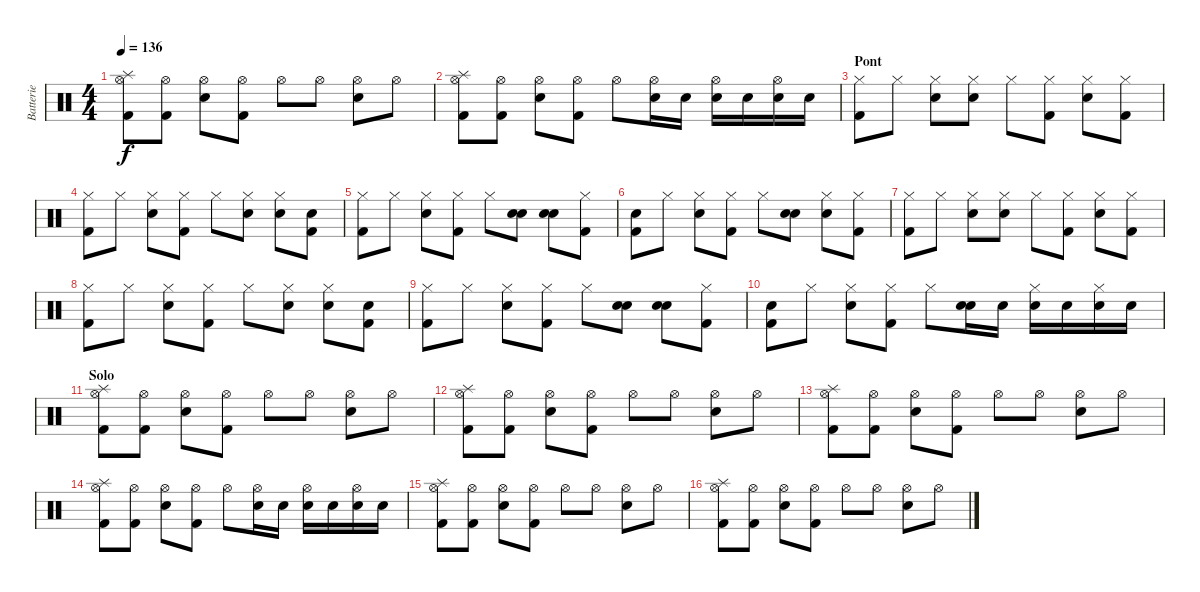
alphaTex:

\track ("Batterie" "Batterie") {instrument percussion}
\staff {score}
\articulation defaults
\ts (4 4)
\tempo 136
\clef neutral
\ks c
("Splash (hit)" "Hi-Hat (open)" "Kick (hit) 2").8{dy f} ("Hi-Hat (open)" "Kick (hit) 2").8 ("Hi-Hat (open)" "Snare (hit) 2").8 ("Hi-Hat (open)" "Kick (hit) 2").8 "Hi-Hat (open)".8 "Hi-Hat (open)".8 ("Hi-Hat (open)" "Snare (hit) 2").8 "Hi-Hat (open)".8 |
("Splash (hit)" "Hi-Hat (open)" "Kick (hit) 2").8 ("Hi-Hat (open)" "Kick (hit) 2").8 ("Hi-Hat (open)" "Snare (hit) 2").8 ("Hi-Hat (open)" "Kick (hit) 2").8 "Hi-Hat (open)".8 ("Hi-Hat (open)" "Snare (hit) 2").16 "Snare (hit) 2".16 ("Hi-Hat (open)" "Snare (hit) 2").16 "Snare (hit) 2".16 ("Hi-Hat (open)" "Snare (hit) 2").16 "Snare (hit) 2".16 |
\section ("" "Pont")
("Hi-Hat (closed)" "Kick (hit) 2").8 "Hi-Hat (closed)".8 ("Hi-Hat (closed)" "Snare (hit) 2").8 ("Hi-Hat (closed)" "Snare (hit) 2").8 "Hi-Hat (closed)".8 ("Hi-Hat (closed)" "Kick (hit) 2").8 ("Hi-Hat (closed)" "Snare (hit) 2").8 ("Hi-Hat (closed)" "Kick (hit) 2").8 |
("Hi-Hat (closed)" "Kick (hit) 2").8 "Hi-Hat (closed)".8 ("Hi-Hat (closed)" "Snare (hit) 2").8 ("Hi-Hat (closed)" "Kick (hit) 2").8 "Hi-Hat (closed)".8 ("Hi-Hat (closed)" "Snare (hit) 2").8 ("Hi-Hat (closed)" "Snare (hit) 2").8 ("Snare (hit)" "Kick (hit) 2").8 |
("Hi-Hat (closed)" "Kick (hit) 2").8 "Hi-Hat (closed)".8 ("Hi-Hat (closed)" "Snare (hit) 2").8 ("Hi-Hat (closed)" "Kick (hit) 2").8 "Hi-Hat (closed)".8 ("Snare (hit)" "Snare (hit) 2").8 ("Snare (hit)" "Snare (hit) 2").8 ("Hi-Hat (closed)" "Kick (hit) 2").8 |
("Snare (hit)" "Kick (hit) 2").8 "Hi-Hat (closed)".8 ("Hi-Hat (closed)" "Snare (hit) 2").8 ("Hi-Hat (closed)" "Kick (hit) 2").8 "Hi-Hat (closed)".8 ("Snare (hit)" "Snare (hit) 2").8 ("Hi-Hat (closed)" "Snare (hit) 2").8 ("Hi-Hat (closed)" "Kick (hit) 2").8 |
("Hi-Hat (closed)" "Kick (hit) 2").8 "Hi-Hat (closed)".8 ("Hi-Hat (closed)" "Snare (hit) 2").8 ("Hi-Hat (closed)" "Snare (hit) 2").8 "Hi-Hat (closed)".8 ("Hi-Hat (closed)" "Kick (hit) 2").8 ("Hi-Hat (closed)" "Snare (hit) 2").8 ("Hi-Hat (closed)" "Kick (hit) 2").8 |
("Hi-Hat (closed)" "Kick (hit) 2").8 "Hi-Hat (closed)".8 ("Hi-Hat (closed)" "Snare (hit) 2").8 ("Hi-Hat (closed)" "Kick (hit) 2").8 "Hi-Hat (closed)".8 ("Hi-Hat (closed)" "Snare (hit) 2").8 ("Hi-Hat (closed)" "Snare (hit) 2").8 ("Snare (hit)" "Kick (hit) 2").8 |
("Hi-Hat (closed)" "Kick (hit) 2").8 "Hi-Hat (closed)".8 ("Hi-Hat (closed)" "Snare (hit) 2").8 ("Hi-Hat (closed)" "Kick (hit) 2").8 "Hi-Hat (closed)".8 ("Snare (hit)" "Snare (hit) 2").8 ("Snare (hit)" "Snare (hit) 2").8 ("Hi-Hat (closed)" "Kick (hit) 2").8 |
("Snare (hit)" "Kick (hit) 2").8 "Hi-Hat (closed)".8 ("Hi-Hat (closed)" "Snare (hit) 2").8 ("Hi-Hat (closed)" "Kick (hit) 2").8 "Hi-Hat (closed)".8 ("Snare (hit)" "Snare (hit) 2").16 "Snare (hit) 2".16 ("Hi-Hat (closed)" "Snare (hit) 2").16 "Snare (hit) 2".16 ("Hi-Hat (closed)" "Snare (hit) 2").16 "Snare (hit) 2".16 |
\section ("" "Solo")
("Splash (hit)" "Hi-Hat (open)" "Kick (hit) 2").8 ("Hi-Hat (open)" "Kick (hit) 2").8 ("Hi-Hat (open)" "Snare (hit) 2").8 ("Hi-Hat (open)" "Kick (hit) 2").8 "Hi-Hat (open)".8 "Hi-Hat (open)".8 ("Hi-Hat (open)" "Snare (hit) 2").8 "Hi-Hat (open)".8 |
("Splash (hit)" "Hi-Hat (open)" "Kick (hit) 2").8 ("Hi-Hat (open)" "Kick (hit) 2").8 ("Hi-Hat (open)" "Snare (hit) 2").8 ("Hi-Hat (open)" "Kick (hit) 2").8 "Hi-Hat (open)".8 "Hi-Hat (open)".8 ("Hi-Hat (open)" "Snare (hit) 2").8 "Hi-Hat (open)".8 |
("Splash (hit)" "Hi-Hat (open)" "Kick (hit) 2").8 ("Hi-Hat (open)" "Kick (hit) 2").8 ("Hi-Hat (open)" "Snare (hit) 2").8 ("Hi-Hat (open)" "Kick (hit) 2").8 "Hi-Hat (open)".8 "Hi-Hat (open)".8 ("Hi-Hat (open)" "Snare (hit) 2").8 "Hi-Hat (open)".8 |
("Splash (hit)" "Hi-Hat (open)" "Kick (hit) 2").8 ("Hi-Hat (open)" "Kick (hit) 2").8 ("Hi-Hat (open)" "Snare (hit) 2").8 ("Hi-Hat (open)" "Kick (hit) 2").8 "Hi-Hat (open)".8 ("Hi-Hat (open)" "Snare (hit) 2").16 "Snare (hit) 2".16 ("Hi-Hat (open)" "Snare (hit) 2").16 "Snare (hit) 2".16 ("Hi-Hat (open)" "Snare (hit) 2").16 "Snare (hit) 2".16 |
("Splash (hit)" "Hi-Hat (open)" "Kick (hit) 2").8 ("Hi-Hat (open)" "Kick (hit) 2").8 ("Hi-Hat (open)" "Snare (hit) 2").8 ("Hi-Hat (open)" "Kick (hit) 2").8 "Hi-Hat (open)".8 "Hi-Hat (open)".8 ("Hi-Hat (open)" "Snare (hit) 2").8 "Hi-Hat (open)".8 |
("Splash (hit)" "Hi-Hat (open)" "Kick (hit) 2").8 ("Hi-Hat (open)" "Kick (hit) 2").8 ("Hi-Hat (open)" "Snare (hit) 2").8 ("Hi-Hat (open)" "Kick (hit) 2").8 "Hi-Hat (open)".8 "Hi-Hat (open)".8 ("Hi-Hat (open)" "Snare (hit) 2").8 "Hi-Hat (open)".8
